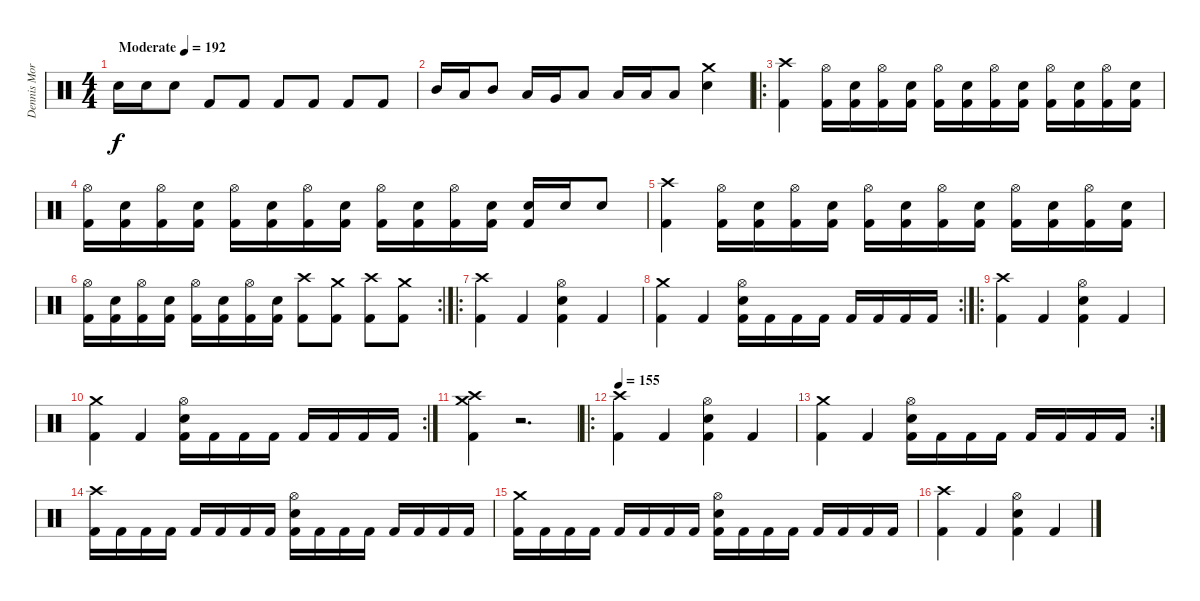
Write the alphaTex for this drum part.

\track ("Dennis Morgan" "Dennis Mor") {instrument percussion}
\staff {score}
\articulation defaults
\ts (4 4)
\tempo (192 "Moderate")
\clef neutral
\ks c "Electric Snare (hit)".16{dy f} "Electric Snare (hit)".16 "Electric Snare (hit)".8 "Kick (hit) 2".8 "Kick (hit) 2".8 "Kick (hit) 2".8 "Kick (hit) 2".8 "Kick (hit) 2".8 "Kick (hit) 2".8
|
"Mid Tom (hit)".16 "Low Tom (hit)".16 "Mid Tom (hit)".8 "Low Tom (hit)".16 "Very Low Tom (hit)".16 "Low Tom (hit)".8 "Low Floor Tom (hit)".16 "Low Floor Tom (hit)".16 "Low Floor Tom (hit)".8 ("Crash medium (hit)" "Electric Snare (hit)").4 |
\ro
("Crash high (hit)" "Kick (hit) 2").4 ("Hi-Hat (open)" "Kick (hit) 2").16 ("Electric Snare (hit)" "Kick (hit) 2").16 ("Hi-Hat (open)" "Kick (hit) 2").16 ("Electric Snare (hit)" "Kick (hit) 2").16 ("Hi-Hat (open)" "Kick (hit) 2").16 ("Electric Snare (hit)" "Kick (hit) 2").16 ("Hi-Hat (open)" "Kick (hit) 2").16 ("Electric Snare (hit)" "Kick (hit) 2").16 ("Hi-Hat (open)" "Kick (hit) 2").16 ("Electric Snare (hit)" "Kick (hit) 2").16 ("Hi-Hat (open)" "Kick (hit) 2").16 ("Electric Snare (hit)" "Kick (hit) 2").16 |
("Hi-Hat (open)" "Kick (hit) 2").16 ("Electric Snare (hit)" "Kick (hit) 2").16 ("Hi-Hat (open)" "Kick (hit) 2").16 ("Electric Snare (hit)" "Kick (hit) 2").16 ("Hi-Hat (open)" "Kick (hit) 2").16 ("Electric Snare (hit)" "Kick (hit) 2").16 ("Hi-Hat (open)" "Kick (hit) 2").16 ("Electric Snare (hit)" "Kick (hit) 2").16 ("Hi-Hat (open)" "Kick (hit) 2").16 ("Electric Snare (hit)" "Kick (hit) 2").16 ("Hi-Hat (open)" "Kick (hit) 2").16 ("Electric Snare (hit)" "Kick (hit) 2").16 ("Electric Snare (hit)" "Kick (hit) 2").16 "Electric Snare (hit)".16 "Electric Snare (hit)".8 |
("Crash high (hit)" "Kick (hit) 2").4 ("Hi-Hat (open)" "Kick (hit) 2").16 ("Electric Snare (hit)" "Kick (hit) 2").16 ("Hi-Hat (open)" "Kick (hit) 2").16 ("Electric Snare (hit)" "Kick (hit) 2").16 ("Hi-Hat (open)" "Kick (hit) 2").16 ("Electric Snare (hit)" "Kick (hit) 2").16 ("Hi-Hat (open)" "Kick (hit) 2").16 ("Electric Snare (hit)" "Kick (hit) 2").16 ("Hi-Hat (open)" "Kick (hit) 2").16 ("Electric Snare (hit)" "Kick (hit) 2").16 ("Hi-Hat (open)" "Kick (hit) 2").16 ("Electric Snare (hit)" "Kick (hit) 2").16 |
\rc 2
("Hi-Hat (open)" "Kick (hit) 2").16 ("Electric Snare (hit)" "Kick (hit) 2").16 ("Hi-Hat (open)" "Kick (hit) 2").16 ("Electric Snare (hit)" "Kick (hit) 2").16 ("Hi-Hat (open)" "Kick (hit) 2").16 ("Electric Snare (hit)" "Kick (hit) 2").16 ("Hi-Hat (open)" "Kick (hit) 2").16 ("Electric Snare (hit)" "Kick (hit) 2").16 ("Crash high (hit)" "Kick (hit) 2").8 ("Crash medium (hit)" "Kick (hit) 2").8 ("Crash high (hit)" "Kick (hit) 2").8 ("Crash medium (hit)" "Kick (hit) 2").8 |
\ro
("Crash high (hit)" "Kick (hit) 2").4 "Kick (hit) 2".4 ("Hi-Hat (open)" "Electric Snare (hit)" "Kick (hit) 2").4 "Kick (hit) 2".4 |
\rc 2
("Crash medium (hit)" "Kick (hit) 2").4 "Kick (hit) 2".4 ("Hi-Hat (open)" "Electric Snare (hit)" "Kick (hit) 2").16 "Kick (hit) 2".16 "Kick (hit) 2".16 "Kick (hit) 2".16 "Kick (hit) 2".16 "Kick (hit) 2".16 "Kick (hit) 2".16 "Kick (hit) 2".16 |
\ro
("Crash high (hit)" "Kick (hit) 2").4 "Kick (hit) 2".4 ("Hi-Hat (open)" "Electric Snare (hit)" "Kick (hit) 2").4 "Kick (hit) 2".4 |
\rc 2
("Crash medium (hit)" "Kick (hit) 2").4 "Kick (hit) 2".4 ("Hi-Hat (open)" "Electric Snare (hit)" "Kick (hit) 2").16 "Kick (hit) 2".16 "Kick (hit) 2".16 "Kick (hit) 2".16 "Kick (hit) 2".16 "Kick (hit) 2".16 "Kick (hit) 2".16 "Kick (hit) 2".16 |
("Crash medium (hit)" "Crash high (hit)" "Kick (hit) 2").4 r.2{d} |
\ro
\tempo 155
("Crash high (hit)" "Kick (hit) 2").4 "Kick (hit) 2".4 ("Hi-Hat (open)" "Electric Snare (hit)" "Kick (hit) 2").4 "Kick (hit) 2".4 |
\rc 2
("Crash medium (hit)" "Kick (hit) 2").4 "Kick (hit) 2".4 ("Hi-Hat (open)" "Electric Snare (hit)" "Kick (hit) 2").16 "Kick (hit) 2".16 "Kick (hit) 2".16 "Kick (hit) 2".16 "Kick (hit) 2".16 "Kick (hit) 2".16 "Kick (hit) 2".16 "Kick (hit) 2".16 |
("Crash high (hit)" "Kick (hit) 2").16 "Kick (hit) 2".16 "Kick (hit) 2".16 "Kick (hit) 2".16 "Kick (hit) 2".16 "Kick (hit) 2".16 "Kick (hit) 2".16 "Kick (hit) 2".16 ("Hi-Hat (open)" "Electric Snare (hit)" "Kick (hit) 2").16 "Kick (hit) 2".16 "Kick (hit) 2".16 "Kick (hit) 2".16 "Kick (hit) 2".16 "Kick (hit) 2".16 "Kick (hit) 2".16 "Kick (hit) 2".16 |
("Crash medium (hit)" "Kick (hit) 2").16 "Kick (hit) 2".16 "Kick (hit) 2".16 "Kick (hit) 2".16 "Kick (hit) 2".16 "Kick (hit) 2".16 "Kick (hit) 2".16 "Kick (hit) 2".16 ("Hi-Hat (open)" "Electric Snare (hit)" "Kick (hit) 2").16 "Kick (hit) 2".16 "Kick (hit) 2".16 "Kick (hit) 2".16 "Kick (hit) 2".16 "Kick (hit) 2".16 "Kick (hit) 2".16 "Kick (hit) 2".16 |
("Crash high (hit)" "Kick (hit) 2").4 "Kick (hit) 2".4 ("Hi-Hat (open)" "Electric Snare (hit)" "Kick (hit) 2").4 "Kick (hit) 2".4
